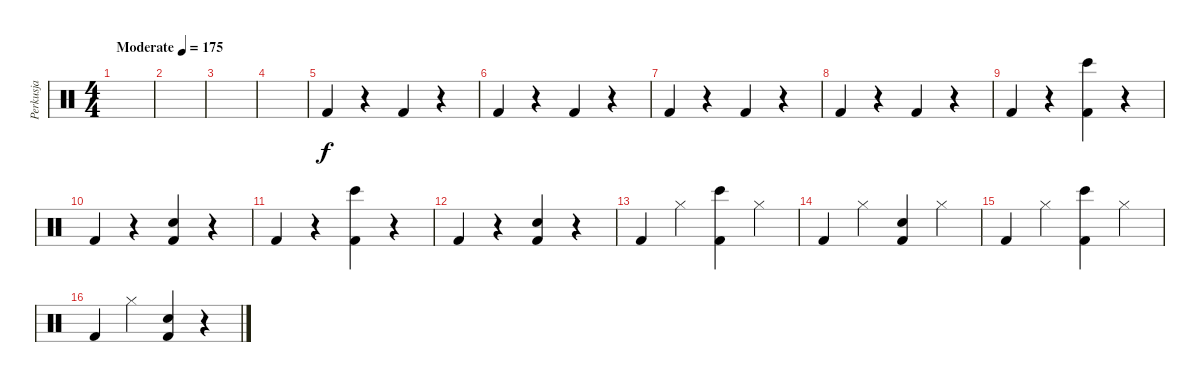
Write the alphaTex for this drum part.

\track ("Perkusja" "Perkusja") {instrument percussion}
\staff {score}
\articulation defaults
\ts (4 4)
\tempo (175 "Moderate")
\clef neutral
\ks c
|
|
|
|
"Kick (hit) 2".4 r.4 "Kick (hit) 2".4 r.4 |
"Kick (hit) 2".4 r.4 "Kick (hit) 2".4 r.4 |
"Kick (hit) 2".4 r.4 "Kick (hit) 2".4 r.4 |
"Kick (hit) 2".4 r.4 "Kick (hit) 2".4 r.4 |
"Kick (hit) 2".4 r.4 ("Bongo High (hit)" "Kick (hit) 2").4 r.4 |
"Kick (hit) 2".4 r.4 ("Snare (hit) 2" "Kick (hit) 2").4 r.4 |
"Kick (hit) 2".4 r.4 ("Bongo High (hit)" "Kick (hit) 2").4 r.4 |
"Kick (hit) 2".4 r.4 ("Snare (hit) 2" "Kick (hit) 2").4 r.4 |
"Kick (hit) 2".4 "Hi-Hat (closed)".4 ("Bongo High (hit)" "Kick (hit) 2").4 "Hi-Hat (closed)".4 |
"Kick (hit) 2".4 "Hi-Hat (closed)".4 ("Snare (hit) 2" "Kick (hit) 2").4 "Hi-Hat (closed)".4 |
"Kick (hit) 2".4 "Hi-Hat (closed)".4 ("Bongo High (hit)" "Kick (hit) 2").4 "Hi-Hat (closed)".4 |
"Kick (hit) 2".4 "Hi-Hat (closed)".4 ("Snare (hit) 2" "Kick (hit) 2").4 r.4
